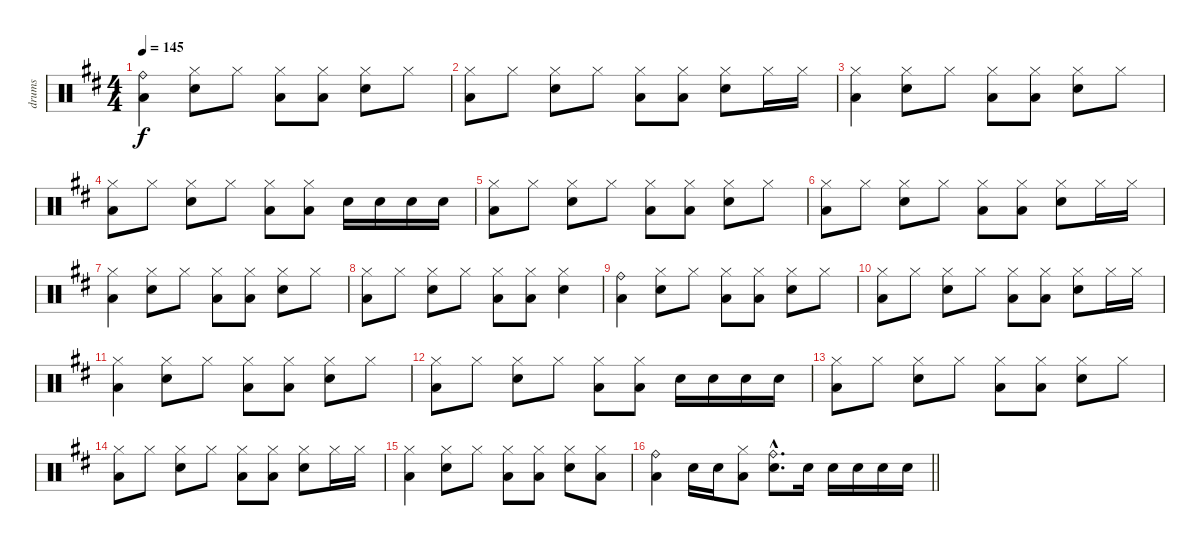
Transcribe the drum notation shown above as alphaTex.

\track ("drums" "drums") {instrument percussion}
\staff {score}
\articulation defaults
\ts (4 4)
\tempo 145
\clef neutral
\ks d
("Ride (bell)" "Low Floor Tom (hit)").4{dy f} ("Hi-Hat (closed)" "Electric Snare (hit)").8 "Hi-Hat (closed)".8 ("Hi-Hat (closed)" "Low Floor Tom (hit)").8 ("Hi-Hat (closed)" "Low Floor Tom (hit)").8 ("Hi-Hat (closed)" "Electric Snare (hit)").8 "Hi-Hat (closed)".8 |
("Hi-Hat (closed)" "Low Floor Tom (hit)").8 "Hi-Hat (closed)".8 ("Hi-Hat (closed)" "Electric Snare (hit)").8 "Hi-Hat (closed)".8 ("Hi-Hat (closed)" "Low Floor Tom (hit)").8 ("Hi-Hat (closed)" "Low Floor Tom (hit)").8 ("Hi-Hat (closed)" "Electric Snare (hit)").8 "Hi-Hat (closed)".16 "Hi-Hat (closed)".16 |
("Hi-Hat (closed)" "Low Floor Tom (hit)").4 ("Hi-Hat (closed)" "Electric Snare (hit)").8 "Hi-Hat (closed)".8 ("Hi-Hat (closed)" "Low Floor Tom (hit)").8 ("Hi-Hat (closed)" "Low Floor Tom (hit)").8 ("Hi-Hat (closed)" "Electric Snare (hit)").8 "Hi-Hat (closed)".8 |
("Hi-Hat (closed)" "Low Floor Tom (hit)").8 "Hi-Hat (closed)".8 ("Hi-Hat (closed)" "Electric Snare (hit)").8 "Hi-Hat (closed)".8 ("Hi-Hat (closed)" "Low Floor Tom (hit)").8 ("Hi-Hat (closed)" "Low Floor Tom (hit)").8 "Electric Snare (hit)".16 "Electric Snare (hit)".16 "Electric Snare (hit)".16 "Electric Snare (hit)".16 |
("Hi-Hat (closed)" "Low Floor Tom (hit)").8 "Hi-Hat (closed)".8 ("Hi-Hat (closed)" "Electric Snare (hit)").8 "Hi-Hat (closed)".8 ("Hi-Hat (closed)" "Low Floor Tom (hit)").8 ("Hi-Hat (closed)" "Low Floor Tom (hit)").8 ("Hi-Hat (closed)" "Electric Snare (hit)").8 "Hi-Hat (closed)".8 |
("Hi-Hat (closed)" "Low Floor Tom (hit)").8 "Hi-Hat (closed)".8 ("Hi-Hat (closed)" "Electric Snare (hit)").8 "Hi-Hat (closed)".8 ("Hi-Hat (closed)" "Low Floor Tom (hit)").8 ("Hi-Hat (closed)" "Low Floor Tom (hit)").8 ("Hi-Hat (closed)" "Electric Snare (hit)").8 "Hi-Hat (closed)".16 "Hi-Hat (closed)".16 |
("Hi-Hat (closed)" "Low Floor Tom (hit)").4 ("Hi-Hat (closed)" "Electric Snare (hit)").8 "Hi-Hat (closed)".8 ("Hi-Hat (closed)" "Low Floor Tom (hit)").8 ("Hi-Hat (closed)" "Low Floor Tom (hit)").8 ("Hi-Hat (closed)" "Electric Snare (hit)").8 "Hi-Hat (closed)".8 |
("Hi-Hat (closed)" "Low Floor Tom (hit)").8 "Hi-Hat (closed)".8 ("Hi-Hat (closed)" "Electric Snare (hit)").8 "Hi-Hat (closed)".8 ("Hi-Hat (closed)" "Low Floor Tom (hit)").8 ("Hi-Hat (closed)" "Low Floor Tom (hit)").8 ("Hi-Hat (closed)" "Electric Snare (hit)").4 |
("Ride (bell)" "Low Floor Tom (hit)").4 ("Hi-Hat (closed)" "Electric Snare (hit)").8 "Hi-Hat (closed)".8 ("Hi-Hat (closed)" "Low Floor Tom (hit)").8 ("Hi-Hat (closed)" "Low Floor Tom (hit)").8 ("Hi-Hat (closed)" "Electric Snare (hit)").8 "Hi-Hat (closed)".8 |
("Hi-Hat (closed)" "Low Floor Tom (hit)").8 "Hi-Hat (closed)".8 ("Hi-Hat (closed)" "Electric Snare (hit)").8 "Hi-Hat (closed)".8 ("Hi-Hat (closed)" "Low Floor Tom (hit)").8 ("Hi-Hat (closed)" "Low Floor Tom (hit)").8 ("Hi-Hat (closed)" "Electric Snare (hit)").8 "Hi-Hat (closed)".16 "Hi-Hat (closed)".16 |
("Hi-Hat (closed)" "Low Floor Tom (hit)").4 ("Hi-Hat (closed)" "Electric Snare (hit)").8 "Hi-Hat (closed)".8 ("Hi-Hat (closed)" "Low Floor Tom (hit)").8 ("Hi-Hat (closed)" "Low Floor Tom (hit)").8 ("Hi-Hat (closed)" "Electric Snare (hit)").8 "Hi-Hat (closed)".8 |
("Hi-Hat (closed)" "Low Floor Tom (hit)").8 "Hi-Hat (closed)".8 ("Hi-Hat (closed)" "Electric Snare (hit)").8 "Hi-Hat (closed)".8 ("Hi-Hat (closed)" "Low Floor Tom (hit)").8 ("Hi-Hat (closed)" "Low Floor Tom (hit)").8 "Electric Snare (hit)".16 "Electric Snare (hit)".16 "Electric Snare (hit)".16 "Electric Snare (hit)".16 |
("Hi-Hat (closed)" "Low Floor Tom (hit)").8 "Hi-Hat (closed)".8 ("Hi-Hat (closed)" "Electric Snare (hit)").8 "Hi-Hat (closed)".8 ("Hi-Hat (closed)" "Low Floor Tom (hit)").8 ("Hi-Hat (closed)" "Low Floor Tom (hit)").8 ("Hi-Hat (closed)" "Electric Snare (hit)").8 "Hi-Hat (closed)".8 |
("Hi-Hat (closed)" "Low Floor Tom (hit)").8 "Hi-Hat (closed)".8 ("Hi-Hat (closed)" "Electric Snare (hit)").8 "Hi-Hat (closed)".8 ("Hi-Hat (closed)" "Low Floor Tom (hit)").8 ("Hi-Hat (closed)" "Low Floor Tom (hit)").8 ("Hi-Hat (closed)" "Electric Snare (hit)").8 "Hi-Hat (closed)".16 "Hi-Hat (closed)".16 |
("Hi-Hat (closed)" "Low Floor Tom (hit)").4 ("Hi-Hat (closed)" "Electric Snare (hit)").8 "Hi-Hat (closed)".8 ("Hi-Hat (closed)" "Low Floor Tom (hit)").8 ("Hi-Hat (closed)" "Low Floor Tom (hit)").8 ("Hi-Hat (closed)" "Electric Snare (hit)").8 ("Hi-Hat (closed)" "Low Floor Tom (hit)").8 |
\barLineRight lightlight
("Ride (bell)" "Low Floor Tom (hit)").4 "Electric Snare (hit)".16 "Electric Snare (hit)".16 ("Hi-Hat (closed)" "Low Floor Tom (hit)").8 ("Ride (bell)"{hac} "Electric Snare (hit)"{hac}).8{d} "Electric Snare (hit)".16 "Electric Snare (hit)".16 "Electric Snare (hit)".16 "Electric Snare (hit)".16 "Electric Snare (hit)".16
